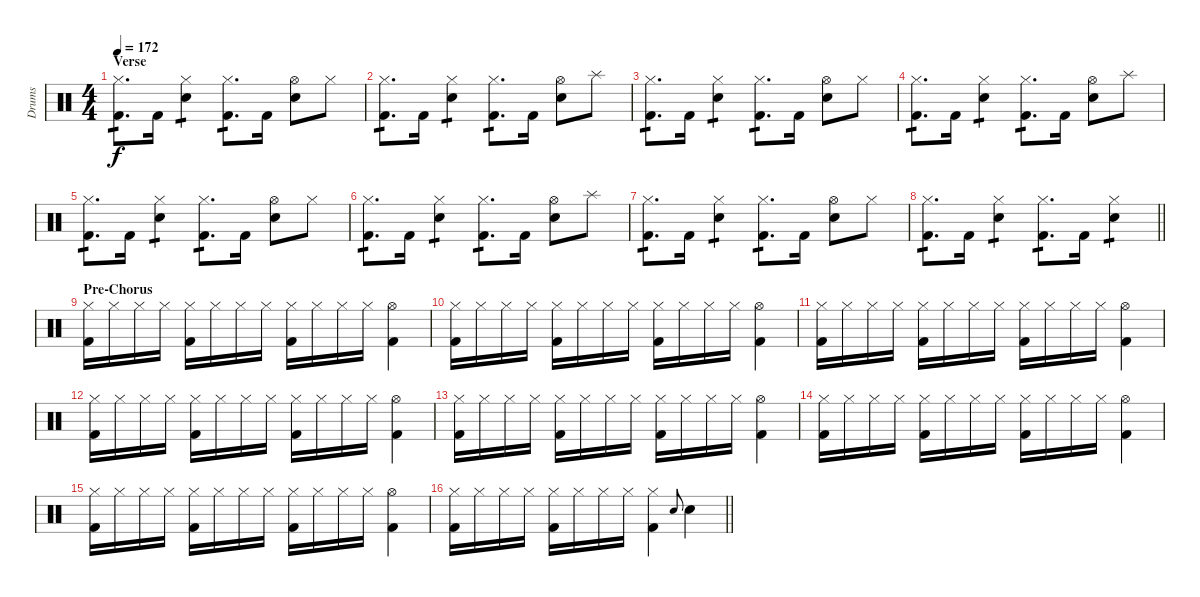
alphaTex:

\track ("Drums" "Drums") {instrument percussion}
\staff {score}
\articulation defaults
\ts (4 4)
\section ("" "Verse")
\tempo 172
\clef neutral
\ks c
("Hi-Hat (closed)" "Kick (hit) 2").8{d tp 1 dy f} "Kick (hit) 2".16 ("Hi-Hat (closed)" "Electric Snare (hit)").4{tp 1} ("Hi-Hat (closed)" "Kick (hit) 2").8{d tp 1} "Kick (hit) 2".16 ("Hi-Hat (open)" "Electric Snare (hit)").8 "Hi-Hat (closed)".8 |
("Hi-Hat (closed)" "Kick (hit) 2").8{d tp 1} "Kick (hit) 2".16 ("Hi-Hat (closed)" "Electric Snare (hit)").4{tp 1} ("Hi-Hat (closed)" "Kick (hit) 2").8{d tp 1} "Kick (hit) 2".16 ("Hi-Hat (open)" "Electric Snare (hit)").8 "Splash (hit)".8 |
("Hi-Hat (closed)" "Kick (hit) 2").8{d tp 1} "Kick (hit) 2".16 ("Hi-Hat (closed)" "Electric Snare (hit)").4{tp 1} ("Hi-Hat (closed)" "Kick (hit) 2").8{d tp 1} "Kick (hit) 2".16 ("Hi-Hat (open)" "Electric Snare (hit)").8 "Hi-Hat (closed)".8 |
("Hi-Hat (closed)" "Kick (hit) 2").8{d tp 1} "Kick (hit) 2".16 ("Hi-Hat (closed)" "Electric Snare (hit)").4{tp 1} ("Hi-Hat (closed)" "Kick (hit) 2").8{d tp 1} "Kick (hit) 2".16 ("Hi-Hat (open)" "Electric Snare (hit)").8 "Splash (hit)".8 |
("Hi-Hat (closed)" "Kick (hit) 2").8{d tp 1} "Kick (hit) 2".16 ("Hi-Hat (closed)" "Electric Snare (hit)").4{tp 1} ("Hi-Hat (closed)" "Kick (hit) 2").8{d tp 1} "Kick (hit) 2".16 ("Hi-Hat (open)" "Electric Snare (hit)").8 "Hi-Hat (closed)".8 |
("Hi-Hat (closed)" "Kick (hit) 2").8{d tp 1} "Kick (hit) 2".16 ("Hi-Hat (closed)" "Electric Snare (hit)").4{tp 1} ("Hi-Hat (closed)" "Kick (hit) 2").8{d tp 1} "Kick (hit) 2".16 ("Hi-Hat (open)" "Electric Snare (hit)").8 "Splash (hit)".8 |
("Hi-Hat (closed)" "Kick (hit) 2").8{d tp 1} "Kick (hit) 2".16 ("Hi-Hat (closed)" "Electric Snare (hit)").4{tp 1} ("Hi-Hat (closed)" "Kick (hit) 2").8{d tp 1} "Kick (hit) 2".16 ("Hi-Hat (open)" "Electric Snare (hit)").8 "Hi-Hat (closed)".8 |
\barLineRight lightlight
("Hi-Hat (closed)" "Kick (hit) 2").8{d tp 1} "Kick (hit) 2".16 ("Hi-Hat (closed)" "Electric Snare (hit)").4{tp 1} ("Hi-Hat (closed)" "Kick (hit) 2").8{d tp 1} "Kick (hit) 2".16 ("Hi-Hat (closed)" "Electric Snare (hit)").4{tp 1} |
\section ("" "Pre-Chorus")
("Hi-Hat (closed)" "Kick (hit) 2").16 "Hi-Hat (closed)".16 "Hi-Hat (closed)".16 "Hi-Hat (closed)".16 ("Hi-Hat (closed)" "Kick (hit) 2").16 "Hi-Hat (closed)".16 "Hi-Hat (closed)".16 "Hi-Hat (closed)".16 ("Hi-Hat (closed)" "Kick (hit) 2").16 "Hi-Hat (closed)".16 "Hi-Hat (closed)".16 "Hi-Hat (closed)".16 ("Hi-Hat (open)" "Kick (hit) 2").4 |
("Hi-Hat (closed)" "Kick (hit) 2").16 "Hi-Hat (closed)".16 "Hi-Hat (closed)".16 "Hi-Hat (closed)".16 ("Hi-Hat (closed)" "Kick (hit) 2").16 "Hi-Hat (closed)".16 "Hi-Hat (closed)".16 "Hi-Hat (closed)".16 ("Hi-Hat (closed)" "Kick (hit) 2").16 "Hi-Hat (closed)".16 "Hi-Hat (closed)".16 "Hi-Hat (closed)".16 ("Hi-Hat (open)" "Kick (hit) 2").4 |
("Hi-Hat (closed)" "Kick (hit) 2").16 "Hi-Hat (closed)".16 "Hi-Hat (closed)".16 "Hi-Hat (closed)".16 ("Hi-Hat (closed)" "Kick (hit) 2").16 "Hi-Hat (closed)".16 "Hi-Hat (closed)".16 "Hi-Hat (closed)".16 ("Hi-Hat (closed)" "Kick (hit) 2").16 "Hi-Hat (closed)".16 "Hi-Hat (closed)".16 "Hi-Hat (closed)".16 ("Hi-Hat (open)" "Kick (hit) 2").4 |
("Hi-Hat (closed)" "Kick (hit) 2").16 "Hi-Hat (closed)".16 "Hi-Hat (closed)".16 "Hi-Hat (closed)".16 ("Hi-Hat (closed)" "Kick (hit) 2").16 "Hi-Hat (closed)".16 "Hi-Hat (closed)".16 "Hi-Hat (closed)".16 ("Hi-Hat (closed)" "Kick (hit) 2").16 "Hi-Hat (closed)".16 "Hi-Hat (closed)".16 "Hi-Hat (closed)".16 ("Hi-Hat (open)" "Kick (hit) 2").4 |
("Hi-Hat (closed)" "Kick (hit) 2").16 "Hi-Hat (closed)".16 "Hi-Hat (closed)".16 "Hi-Hat (closed)".16 ("Hi-Hat (closed)" "Kick (hit) 2").16 "Hi-Hat (closed)".16 "Hi-Hat (closed)".16 "Hi-Hat (closed)".16 ("Hi-Hat (closed)" "Kick (hit) 2").16 "Hi-Hat (closed)".16 "Hi-Hat (closed)".16 "Hi-Hat (closed)".16 ("Hi-Hat (open)" "Kick (hit) 2").4 |
("Hi-Hat (closed)" "Kick (hit) 2").16 "Hi-Hat (closed)".16 "Hi-Hat (closed)".16 "Hi-Hat (closed)".16 ("Hi-Hat (closed)" "Kick (hit) 2").16 "Hi-Hat (closed)".16 "Hi-Hat (closed)".16 "Hi-Hat (closed)".16 ("Hi-Hat (closed)" "Kick (hit) 2").16 "Hi-Hat (closed)".16 "Hi-Hat (closed)".16 "Hi-Hat (closed)".16 ("Hi-Hat (open)" "Kick (hit) 2").4 |
("Hi-Hat (closed)" "Kick (hit) 2").16 "Hi-Hat (closed)".16 "Hi-Hat (closed)".16 "Hi-Hat (closed)".16 ("Hi-Hat (closed)" "Kick (hit) 2").16 "Hi-Hat (closed)".16 "Hi-Hat (closed)".16 "Hi-Hat (closed)".16 ("Hi-Hat (closed)" "Kick (hit) 2").16 "Hi-Hat (closed)".16 "Hi-Hat (closed)".16 "Hi-Hat (closed)".16 ("Hi-Hat (open)" "Kick (hit) 2").4 |
\barLineRight lightlight
("Hi-Hat (closed)" "Kick (hit) 2").16 "Hi-Hat (closed)".16 "Hi-Hat (closed)".16 "Hi-Hat (closed)".16 ("Hi-Hat (closed)" "Kick (hit) 2").16 "Hi-Hat (closed)".16 "Hi-Hat (closed)".16 "Hi-Hat (closed)".16 ("Hi-Hat (closed)" "Kick (hit) 2").4 "Electric Snare (hit)".8{gr onbeat} "Electric Snare (hit)".4
